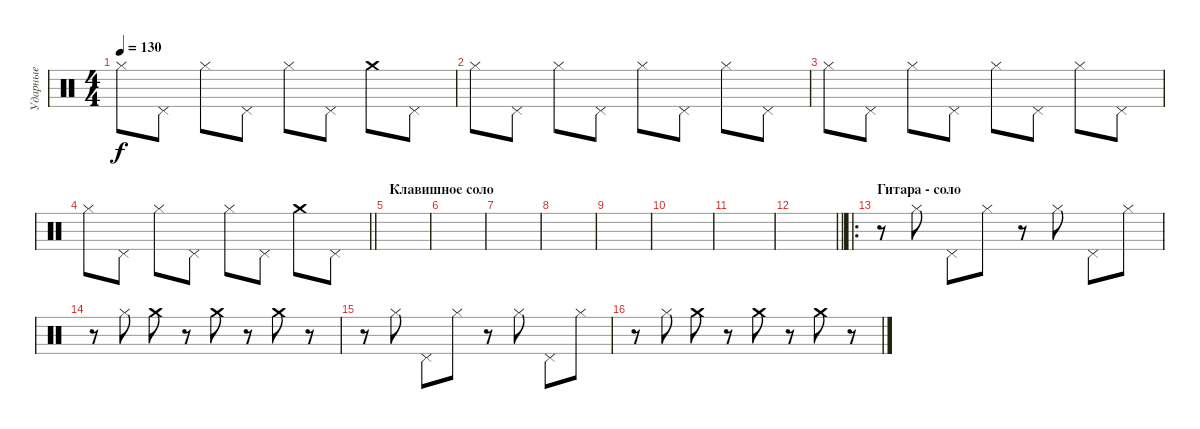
\track ("Ударные" "Ударные") {instrument percussion}
\staff {score}
\articulation defaults
\ts (4 4)
\tempo 130
\clef neutral
\ks c "Hi-Hat (closed)".8{dy f} "Pedal Hi-Hat (hit)".8 "Hi-Hat (closed)".8 "Pedal Hi-Hat (hit)".8 "Hi-Hat (closed)".8 "Pedal Hi-Hat (hit)".8 "Crash medium (hit)".8 "Pedal Hi-Hat (hit)".8
|
"Hi-Hat (closed)".8 "Pedal Hi-Hat (hit)".8 "Hi-Hat (closed)".8 "Pedal Hi-Hat (hit)".8 "Hi-Hat (closed)".8 "Pedal Hi-Hat (hit)".8 "Hi-Hat (closed)".8 "Pedal Hi-Hat (hit)".8 |
"Hi-Hat (closed)".8 "Pedal Hi-Hat (hit)".8 "Hi-Hat (closed)".8 "Pedal Hi-Hat (hit)".8 "Hi-Hat (closed)".8 "Pedal Hi-Hat (hit)".8 "Hi-Hat (closed)".8 "Pedal Hi-Hat (hit)".8 |
\barLineRight lightlight "Hi-Hat (closed)".8 "Pedal Hi-Hat (hit)".8 "Hi-Hat (closed)".8 "Pedal Hi-Hat (hit)".8 "Hi-Hat (closed)".8 "Pedal Hi-Hat (hit)".8 "Crash medium (hit)".8 "Pedal Hi-Hat (hit)".8
|
\section ("" "Клавишное соло")
|
|
|
|
|
|
|
\barLineRight lightlight
|
\ro
\section ("" "Гитара - соло")
r.8 "Hi-Hat (closed)".8 "Pedal Hi-Hat (hit)".8 "Hi-Hat (closed)".8 r.8 "Hi-Hat (closed)".8 "Pedal Hi-Hat (hit)".8 "Hi-Hat (closed)".8 |
r.8 "Hi-Hat (closed)".8 "Crash medium (hit)".8 r.8 "Crash medium (hit)".8 r.8 "Crash medium (hit)".8 r.8 |
r.8 "Hi-Hat (closed)".8 "Pedal Hi-Hat (hit)".8 "Hi-Hat (closed)".8 r.8 "Hi-Hat (closed)".8 "Pedal Hi-Hat (hit)".8 "Hi-Hat (closed)".8 |
r.8 "Hi-Hat (closed)".8 "Crash medium (hit)".8 r.8 "Crash medium (hit)".8 r.8 "Crash medium (hit)".8 r.8
